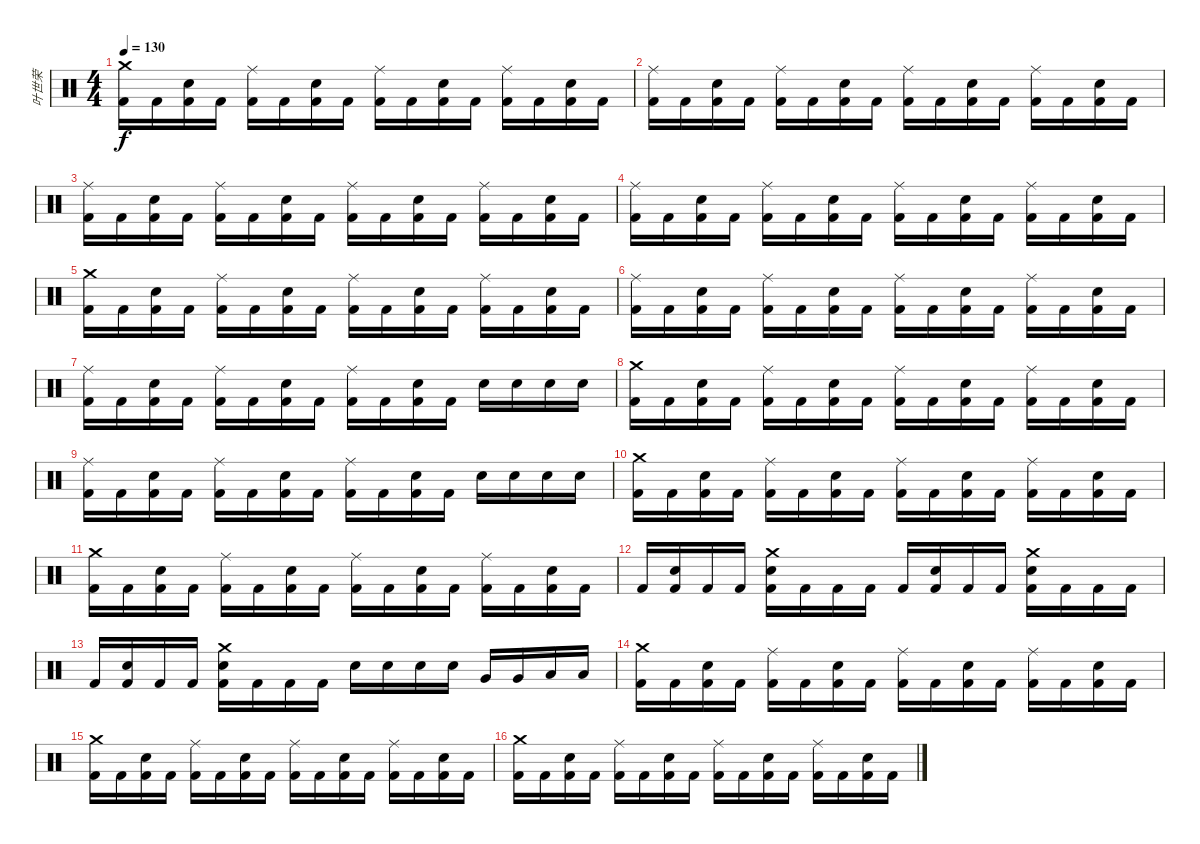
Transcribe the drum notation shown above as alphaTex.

\track ("叶世荣" "叶世荣") {instrument percussion}
\staff {score}
\articulation defaults
\ts (4 4)
\tempo 130
\clef neutral
\ks c
("Crash medium (hit)" "Kick (hit) 2").16{dy f} "Kick (hit) 2".16 ("Snare (hit) 2" "Kick (hit) 2").16 "Kick (hit) 2".16 ("Ride (middle)" "Kick (hit) 2").16 "Kick (hit) 2".16 ("Snare (hit) 2" "Kick (hit) 2").16 "Kick (hit) 2".16 ("Ride (middle)" "Kick (hit) 2").16 "Kick (hit) 2".16 ("Snare (hit) 2" "Kick (hit) 2").16 "Kick (hit) 2".16 ("Ride (middle)" "Kick (hit) 2").16 "Kick (hit) 2".16 ("Snare (hit) 2" "Kick (hit) 2").16 "Kick (hit) 2".16 |
("Ride (middle)" "Kick (hit) 2").16 "Kick (hit) 2".16 ("Snare (hit) 2" "Kick (hit) 2").16 "Kick (hit) 2".16 ("Ride (middle)" "Kick (hit) 2").16 "Kick (hit) 2".16 ("Snare (hit) 2" "Kick (hit) 2").16 "Kick (hit) 2".16 ("Ride (middle)" "Kick (hit) 2").16 "Kick (hit) 2".16 ("Snare (hit) 2" "Kick (hit) 2").16 "Kick (hit) 2".16 ("Ride (middle)" "Kick (hit) 2").16 "Kick (hit) 2".16 ("Snare (hit) 2" "Kick (hit) 2").16 "Kick (hit) 2".16 |
("Ride (middle)" "Kick (hit) 2").16 "Kick (hit) 2".16 ("Snare (hit) 2" "Kick (hit) 2").16 "Kick (hit) 2".16 ("Ride (middle)" "Kick (hit) 2").16 "Kick (hit) 2".16 ("Snare (hit) 2" "Kick (hit) 2").16 "Kick (hit) 2".16 ("Ride (middle)" "Kick (hit) 2").16 "Kick (hit) 2".16 ("Snare (hit) 2" "Kick (hit) 2").16 "Kick (hit) 2".16 ("Ride (middle)" "Kick (hit) 2").16 "Kick (hit) 2".16 ("Snare (hit) 2" "Kick (hit) 2").16 "Kick (hit) 2".16 |
("Ride (middle)" "Kick (hit) 2").16 "Kick (hit) 2".16 ("Snare (hit) 2" "Kick (hit) 2").16 "Kick (hit) 2".16 ("Ride (middle)" "Kick (hit) 2").16 "Kick (hit) 2".16 ("Snare (hit) 2" "Kick (hit) 2").16 "Kick (hit) 2".16 ("Ride (middle)" "Kick (hit) 2").16 "Kick (hit) 2".16 ("Snare (hit) 2" "Kick (hit) 2").16 "Kick (hit) 2".16 ("Ride (middle)" "Kick (hit) 2").16 "Kick (hit) 2".16 ("Snare (hit) 2" "Kick (hit) 2").16 "Kick (hit) 2".16 |
("Crash medium (hit)" "Kick (hit) 2").16 "Kick (hit) 2".16 ("Snare (hit) 2" "Kick (hit) 2").16 "Kick (hit) 2".16 ("Ride (middle)" "Kick (hit) 2").16 "Kick (hit) 2".16 ("Snare (hit) 2" "Kick (hit) 2").16 "Kick (hit) 2".16 ("Ride (middle)" "Kick (hit) 2").16 "Kick (hit) 2".16 ("Snare (hit) 2" "Kick (hit) 2").16 "Kick (hit) 2".16 ("Ride (middle)" "Kick (hit) 2").16 "Kick (hit) 2".16 ("Snare (hit) 2" "Kick (hit) 2").16 "Kick (hit) 2".16 |
("Ride (middle)" "Kick (hit) 2").16 "Kick (hit) 2".16 ("Snare (hit) 2" "Kick (hit) 2").16 "Kick (hit) 2".16 ("Ride (middle)" "Kick (hit) 2").16 "Kick (hit) 2".16 ("Snare (hit) 2" "Kick (hit) 2").16 "Kick (hit) 2".16 ("Ride (middle)" "Kick (hit) 2").16 "Kick (hit) 2".16 ("Snare (hit) 2" "Kick (hit) 2").16 "Kick (hit) 2".16 ("Ride (middle)" "Kick (hit) 2").16 "Kick (hit) 2".16 ("Snare (hit) 2" "Kick (hit) 2").16 "Kick (hit) 2".16 |
("Ride (middle)" "Kick (hit) 2").16 "Kick (hit) 2".16 ("Snare (hit) 2" "Kick (hit) 2").16 "Kick (hit) 2".16 ("Ride (middle)" "Kick (hit) 2").16 "Kick (hit) 2".16 ("Snare (hit) 2" "Kick (hit) 2").16 "Kick (hit) 2".16 ("Ride (middle)" "Kick (hit) 2").16 "Kick (hit) 2".16 ("Snare (hit) 2" "Kick (hit) 2").16 "Kick (hit) 2".16 "Snare (hit) 2".16 "Snare (hit) 2".16 "Snare (hit) 2".16 "Snare (hit) 2".16 |
("Crash medium (hit)" "Kick (hit) 2").16 "Kick (hit) 2".16 ("Snare (hit) 2" "Kick (hit) 2").16 "Kick (hit) 2".16 ("Ride (middle)" "Kick (hit) 2").16 "Kick (hit) 2".16 ("Snare (hit) 2" "Kick (hit) 2").16 "Kick (hit) 2".16 ("Ride (middle)" "Kick (hit) 2").16 "Kick (hit) 2".16 ("Snare (hit) 2" "Kick (hit) 2").16 "Kick (hit) 2".16 ("Ride (middle)" "Kick (hit) 2").16 "Kick (hit) 2".16 ("Snare (hit) 2" "Kick (hit) 2").16 "Kick (hit) 2".16 |
("Ride (middle)" "Kick (hit) 2").16 "Kick (hit) 2".16 ("Snare (hit) 2" "Kick (hit) 2").16 "Kick (hit) 2".16 ("Ride (middle)" "Kick (hit) 2").16 "Kick (hit) 2".16 ("Snare (hit) 2" "Kick (hit) 2").16 "Kick (hit) 2".16 ("Ride (middle)" "Kick (hit) 2").16 "Kick (hit) 2".16 ("Snare (hit) 2" "Kick (hit) 2").16 "Kick (hit) 2".16 "Snare (hit) 2".16 "Snare (hit) 2".16 "Snare (hit) 2".16 "Snare (hit) 2".16 |
("Crash medium (hit)" "Kick (hit) 2").16 "Kick (hit) 2".16 ("Snare (hit) 2" "Kick (hit) 2").16 "Kick (hit) 2".16 ("Ride (middle)" "Kick (hit) 2").16 "Kick (hit) 2".16 ("Snare (hit) 2" "Kick (hit) 2").16 "Kick (hit) 2".16 ("Ride (middle)" "Kick (hit) 2").16 "Kick (hit) 2".16 ("Snare (hit) 2" "Kick (hit) 2").16 "Kick (hit) 2".16 ("Ride (middle)" "Kick (hit) 2").16 "Kick (hit) 2".16 ("Snare (hit) 2" "Kick (hit) 2").16 "Kick (hit) 2".16 |
("Crash medium (hit)" "Kick (hit) 2").16 "Kick (hit) 2".16 ("Snare (hit) 2" "Kick (hit) 2").16 "Kick (hit) 2".16 ("Ride (middle)" "Kick (hit) 2").16 "Kick (hit) 2".16 ("Snare (hit) 2" "Kick (hit) 2").16 "Kick (hit) 2".16 ("Ride (middle)" "Kick (hit) 2").16 "Kick (hit) 2".16 ("Snare (hit) 2" "Kick (hit) 2").16 "Kick (hit) 2".16 ("Ride (middle)" "Kick (hit) 2").16 "Kick (hit) 2".16 ("Snare (hit) 2" "Kick (hit) 2").16 "Kick (hit) 2".16 |
"Kick (hit) 2".16 ("Snare (hit) 2" "Kick (hit) 2").16 "Kick (hit) 2".16 "Kick (hit) 2".16 ("Crash medium (hit)" "Snare (hit) 2" "Kick (hit) 2").16 "Kick (hit) 2".16 "Kick (hit) 2".16 "Kick (hit) 2".16 "Kick (hit) 2".16 ("Snare (hit) 2" "Kick (hit) 2").16 "Kick (hit) 2".16 "Kick (hit) 2".16 ("Crash medium (hit)" "Snare (hit) 2" "Kick (hit) 2").16 "Kick (hit) 2".16 "Kick (hit) 2".16 "Kick (hit) 2".16 |
"Kick (hit) 2".16 ("Snare (hit) 2" "Kick (hit) 2").16 "Kick (hit) 2".16 "Kick (hit) 2".16 ("Crash medium (hit)" "Snare (hit) 2" "Kick (hit) 2").16 "Kick (hit) 2".16 "Kick (hit) 2".16 "Kick (hit) 2".16 "Snare (hit) 2".16 "Snare (hit) 2".16 "Snare (hit) 2".16 "Snare (hit) 2".16 "Very Low Tom (hit)".16 "Very Low Tom (hit)".16 "Low Floor Tom (hit)".16 "Low Floor Tom (hit)".16 |
("Crash medium (hit)" "Kick (hit) 2").16 "Kick (hit) 2".16 ("Snare (hit) 2" "Kick (hit) 2").16 "Kick (hit) 2".16 ("Ride (middle)" "Kick (hit) 2").16 "Kick (hit) 2".16 ("Snare (hit) 2" "Kick (hit) 2").16 "Kick (hit) 2".16 ("Ride (middle)" "Kick (hit) 2").16 "Kick (hit) 2".16 ("Snare (hit) 2" "Kick (hit) 2").16 "Kick (hit) 2".16 ("Ride (middle)" "Kick (hit) 2").16 "Kick (hit) 2".16 ("Snare (hit) 2" "Kick (hit) 2").16 "Kick (hit) 2".16 |
("Crash medium (hit)" "Kick (hit) 2").16 "Kick (hit) 2".16 ("Snare (hit) 2" "Kick (hit) 2").16 "Kick (hit) 2".16 ("Ride (middle)" "Kick (hit) 2").16 "Kick (hit) 2".16 ("Snare (hit) 2" "Kick (hit) 2").16 "Kick (hit) 2".16 ("Ride (middle)" "Kick (hit) 2").16 "Kick (hit) 2".16 ("Snare (hit) 2" "Kick (hit) 2").16 "Kick (hit) 2".16 ("Ride (middle)" "Kick (hit) 2").16 "Kick (hit) 2".16 ("Snare (hit) 2" "Kick (hit) 2").16 "Kick (hit) 2".16 |
("Crash medium (hit)" "Kick (hit) 2").16 "Kick (hit) 2".16 ("Snare (hit) 2" "Kick (hit) 2").16 "Kick (hit) 2".16 ("Ride (middle)" "Kick (hit) 2").16 "Kick (hit) 2".16 ("Snare (hit) 2" "Kick (hit) 2").16 "Kick (hit) 2".16 ("Ride (middle)" "Kick (hit) 2").16 "Kick (hit) 2".16 ("Snare (hit) 2" "Kick (hit) 2").16 "Kick (hit) 2".16 ("Ride (middle)" "Kick (hit) 2").16 "Kick (hit) 2".16 ("Snare (hit) 2" "Kick (hit) 2").16 "Kick (hit) 2".16
